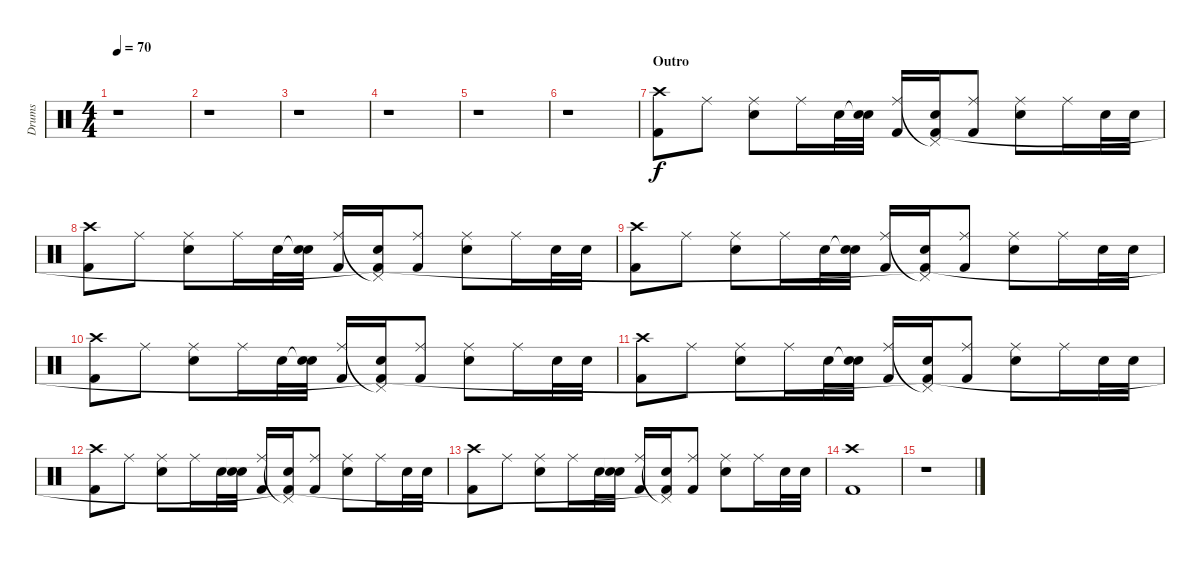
\track ("Drums" "Drums") {instrument percussion}
\staff {score}
\articulation defaults
\ts (4 4)
\tempo 70
\clef neutral
\ks c
r.1{dy f} |
r.1 |
r.1 |
r.1 |
r.1 |
r.1 |
\section ("" "Outro")
("Crash high (hit)" "Kick (hit) 2").8 "Ride (middle)".8 ("Ride (middle)" "Electric Snare (hit)").8 "Ride (middle)".16 "Electric Snare (hit)".32 ("Snare (hit)"{t} "Electric Snare (hit)").32 ("Ride (middle)" "Kick (hit) 2").16 ("Pedal Hi-Hat (hit)"{t} "Electric Snare (hit)" "Kick (hit) 2").16 ("Ride (middle)" "Kick (hit) 2").8 ("Ride (middle)" "Electric Snare (hit)").8 "Ride (middle)".16 "Electric Snare (hit)".32 "Electric Snare (hit)".32 |
("Crash high (hit)" "Kick (hit) 2").8 "Ride (middle)".8 ("Ride (middle)" "Electric Snare (hit)").8 "Ride (middle)".16 "Electric Snare (hit)".32 ("Snare (hit)"{t} "Electric Snare (hit)").32 ("Ride (middle)" "Kick (hit) 2").16 ("Pedal Hi-Hat (hit)"{t} "Electric Snare (hit)" "Kick (hit) 2"{t}).16 ("Ride (middle)" "Kick (hit) 2").8 ("Ride (middle)" "Electric Snare (hit)").8 "Ride (middle)".16 "Electric Snare (hit)".32 "Electric Snare (hit)".32 |
("Crash high (hit)" "Kick (hit) 2").8 "Ride (middle)".8 ("Ride (middle)" "Electric Snare (hit)").8 "Ride (middle)".16 "Electric Snare (hit)".32 ("Snare (hit)"{t} "Electric Snare (hit)").32 ("Ride (middle)" "Kick (hit) 2").16 ("Pedal Hi-Hat (hit)"{t} "Electric Snare (hit)" "Kick (hit) 2"{t}).16 ("Ride (middle)" "Kick (hit) 2").8 ("Ride (middle)" "Electric Snare (hit)").8 "Ride (middle)".16 "Electric Snare (hit)".32 "Electric Snare (hit)".32 |
("Crash high (hit)" "Kick (hit) 2").8 "Ride (middle)".8 ("Ride (middle)" "Electric Snare (hit)").8 "Ride (middle)".16 "Electric Snare (hit)".32 ("Snare (hit)"{t} "Electric Snare (hit)").32 ("Ride (middle)" "Kick (hit) 2").16 ("Pedal Hi-Hat (hit)"{t} "Electric Snare (hit)" "Kick (hit) 2"{t}).16 ("Ride (middle)" "Kick (hit) 2").8 ("Ride (middle)" "Electric Snare (hit)").8 "Ride (middle)".16 "Electric Snare (hit)".32 "Electric Snare (hit)".32 |
("Crash high (hit)" "Kick (hit) 2").8 "Ride (middle)".8 ("Ride (middle)" "Electric Snare (hit)").8 "Ride (middle)".16 "Electric Snare (hit)".32 ("Snare (hit)"{t} "Electric Snare (hit)").32 ("Ride (middle)" "Kick (hit) 2").16 ("Pedal Hi-Hat (hit)"{t} "Electric Snare (hit)" "Kick (hit) 2"{t}).16 ("Ride (middle)" "Kick (hit) 2").8 ("Ride (middle)" "Electric Snare (hit)").8 "Ride (middle)".16 "Electric Snare (hit)".32 "Electric Snare (hit)".32 |
("Crash high (hit)" "Kick (hit) 2").8 "Ride (middle)".8 ("Ride (middle)" "Electric Snare (hit)").8 "Ride (middle)".16 "Electric Snare (hit)".32 ("Snare (hit)"{t} "Electric Snare (hit)").32 ("Ride (middle)" "Kick (hit) 2").16 ("Pedal Hi-Hat (hit)"{t} "Electric Snare (hit)" "Kick (hit) 2"{t}).16 ("Ride (middle)" "Kick (hit) 2").8 ("Ride (middle)" "Electric Snare (hit)").8 "Ride (middle)".16 "Electric Snare (hit)".32 "Electric Snare (hit)".32 |
("Crash high (hit)" "Kick (hit) 2").8 "Ride (middle)".8 ("Ride (middle)" "Electric Snare (hit)").8 "Ride (middle)".16 "Electric Snare (hit)".32 ("Snare (hit)"{t} "Electric Snare (hit)").32 ("Ride (middle)" "Kick (hit) 2").16 ("Pedal Hi-Hat (hit)"{t} "Electric Snare (hit)" "Kick (hit) 2"{t}).16 ("Ride (middle)" "Kick (hit) 2").8 ("Ride (middle)" "Electric Snare (hit)").8 "Ride (middle)".16 "Electric Snare (hit)".32 "Electric Snare (hit)".32 |
("Crash high (hit)" "Kick (hit) 2").1 |
r.1
